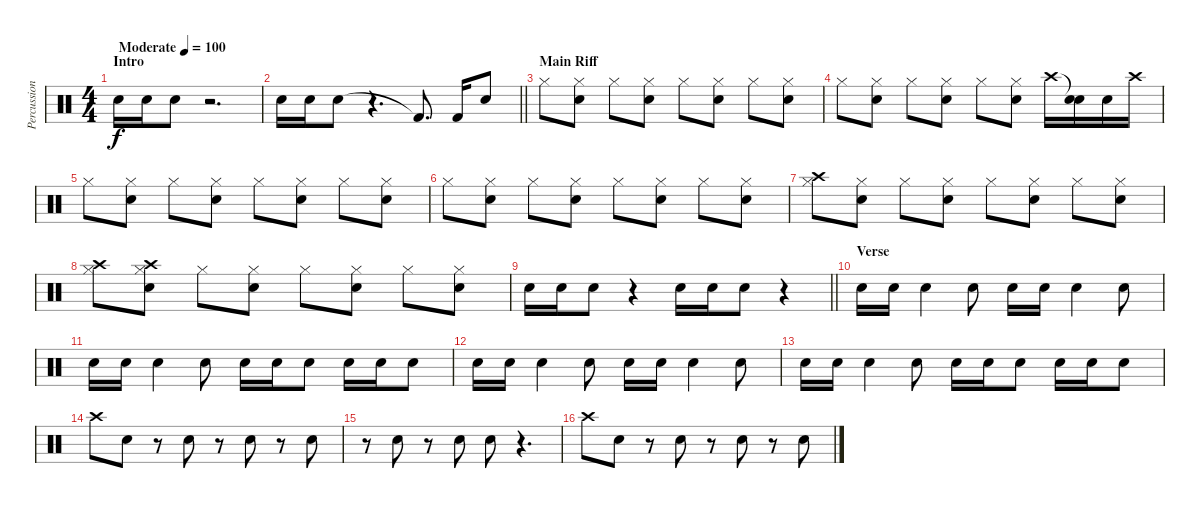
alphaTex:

\track ("Percussion" "Percussion") {instrument percussion}
\staff {score}
\articulation defaults
\ts (4 4)
\section ("" "Intro")
\tempo (100 "Moderate")
\clef neutral
\ks c "Snare (hit) 2".16{dy f} "Snare (hit) 2".16 "Snare (hit) 2".8
r.2{d} |
\barLineRight lightlight "Snare (hit) 2".16 "Snare (hit) 2".16 "Snare (hit) 2".8
r.4{d} "Kick (hit) 2"{t}.8{d} "Kick (hit) 2".16 "Snare (hit) 2".8 |
\section ("" "Main Riff")
"Hi-Hat (closed)".8 ("Hi-Hat (closed)" "Snare (hit) 2").8 "Hi-Hat (closed)".8 ("Hi-Hat (closed)" "Snare (hit) 2").8 "Hi-Hat (closed)".8 ("Hi-Hat (closed)" "Snare (hit) 2").8 "Hi-Hat (closed)".8 ("Hi-Hat (closed)" "Snare (hit) 2").8 |
"Hi-Hat (closed)".8 ("Hi-Hat (closed)" "Snare (hit) 2").8 "Hi-Hat (closed)".8 ("Hi-Hat (closed)" "Snare (hit) 2").8 "Hi-Hat (closed)".8 ("Hi-Hat (closed)" "Snare (hit) 2").8 "Crash high (hit)".16 ("Snare (hit)"{t} "Snare (hit) 2").16 "Snare (hit) 2".16 "Crash high (hit)".16 |
"Hi-Hat (closed)".8 ("Hi-Hat (closed)" "Snare (hit) 2").8 "Hi-Hat (closed)".8 ("Hi-Hat (closed)" "Snare (hit) 2").8 "Hi-Hat (closed)".8 ("Hi-Hat (closed)" "Snare (hit) 2").8 "Hi-Hat (closed)".8 ("Hi-Hat (closed)" "Snare (hit) 2").8 |
"Hi-Hat (closed)".8 ("Hi-Hat (closed)" "Snare (hit) 2").8 "Hi-Hat (closed)".8 ("Hi-Hat (closed)" "Snare (hit) 2").8 "Hi-Hat (closed)".8 ("Hi-Hat (closed)" "Snare (hit) 2").8 "Hi-Hat (closed)".8 ("Hi-Hat (closed)" "Snare (hit) 2").8 |
("Hi-Hat (closed)" "Crash high (hit)").8 ("Hi-Hat (closed)" "Snare (hit) 2").8 "Hi-Hat (closed)".8 ("Hi-Hat (closed)" "Snare (hit) 2").8 "Hi-Hat (closed)".8 ("Hi-Hat (closed)" "Snare (hit) 2").8 "Hi-Hat (closed)".8 ("Hi-Hat (closed)" "Snare (hit) 2").8 |
("Hi-Hat (closed)" "Crash high (hit)").8 ("Hi-Hat (closed)" "Snare (hit) 2" "Crash high (hit)").8 "Hi-Hat (closed)".8 ("Hi-Hat (closed)" "Snare (hit) 2").8 "Hi-Hat (closed)".8 ("Hi-Hat (closed)" "Snare (hit) 2").8 "Hi-Hat (closed)".8 ("Hi-Hat (closed)" "Snare (hit) 2").8 |
\barLineRight lightlight "Snare (hit) 2".16 "Snare (hit) 2".16 "Snare (hit) 2".8
r.4 "Snare (hit) 2".16 "Snare (hit) 2".16 "Snare (hit) 2".8 r.4 |
\section ("" "Verse")
"Snare (hit) 2".16 "Snare (hit) 2".16 "Snare (hit) 2".4 "Snare (hit) 2".8 "Snare (hit) 2".16 "Snare (hit) 2".16 "Snare (hit) 2".4 "Snare (hit) 2".8 |
"Snare (hit) 2".16 "Snare (hit) 2".16 "Snare (hit) 2".4 "Snare (hit) 2".8 "Snare (hit) 2".16 "Snare (hit) 2".16 "Snare (hit) 2".8 "Snare (hit) 2".16 "Snare (hit) 2".16 "Snare (hit) 2".8 |
"Snare (hit) 2".16 "Snare (hit) 2".16 "Snare (hit) 2".4 "Snare (hit) 2".8 "Snare (hit) 2".16 "Snare (hit) 2".16 "Snare (hit) 2".4 "Snare (hit) 2".8 |
"Snare (hit) 2".16 "Snare (hit) 2".16 "Snare (hit) 2".4 "Snare (hit) 2".8 "Snare (hit) 2".16 "Snare (hit) 2".16 "Snare (hit) 2".8 "Snare (hit) 2".16 "Snare (hit) 2".16 "Snare (hit) 2".8 |
"Crash high (hit)".8 "Snare (hit) 2".8 r.8 "Snare (hit) 2".8 r.8 "Snare (hit) 2".8 r.8 "Snare (hit) 2".8 |
r.8 "Snare (hit) 2".8 r.8 "Snare (hit) 2".8 "Snare (hit) 2".8 r.4{d} |
"Crash high (hit)".8 "Snare (hit) 2".8 r.8 "Snare (hit) 2".8 r.8 "Snare (hit) 2".8 r.8 "Snare (hit) 2".8
